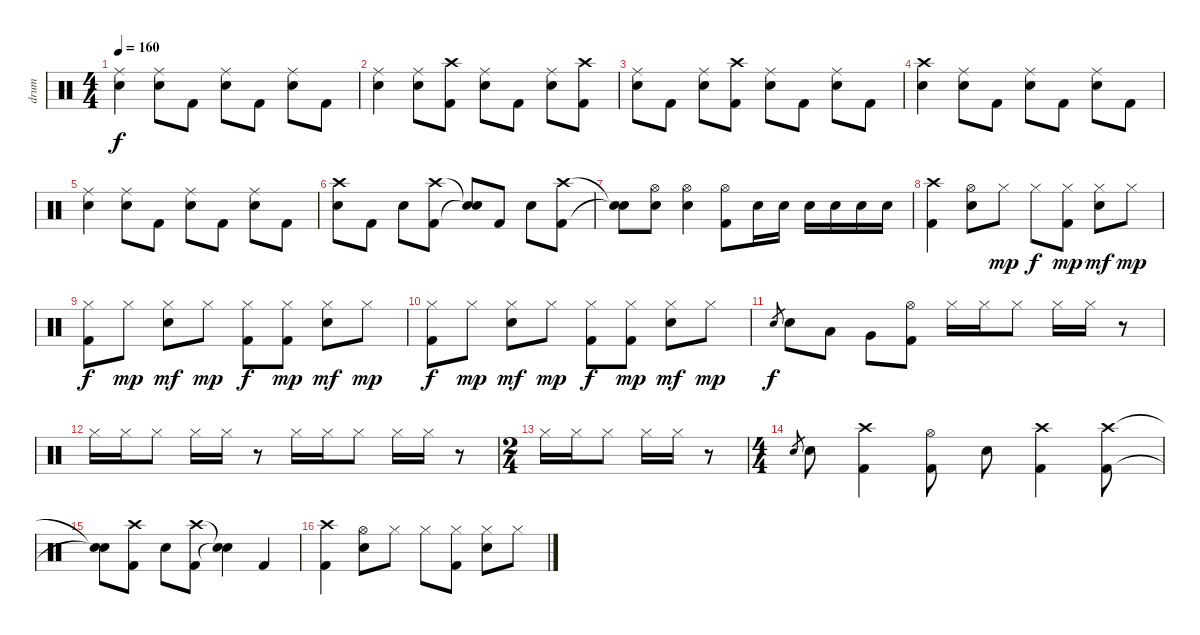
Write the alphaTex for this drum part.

\track ("drum" "drum") {instrument percussion}
\staff {score}
\articulation defaults
\ts (4 4)
\tempo 160
\clef neutral
\ks c
("Ride (middle)" "Electric Snare (hit)").4{dy f} ("Ride (middle)" "Electric Snare (hit)").8 "Kick (hit) 2".8 ("Ride (middle)" "Electric Snare (hit)").8 "Kick (hit) 2".8 ("Ride (middle)" "Electric Snare (hit)").8 "Kick (hit) 2".8 |
("Ride (middle)" "Electric Snare (hit)").4 ("Ride (middle)" "Electric Snare (hit)").8 ("Crash high (hit)" "Kick (hit) 2").8 ("Ride (middle)" "Electric Snare (hit)").8 "Kick (hit) 2".8 ("Ride (middle)" "Electric Snare (hit)").8 ("Crash high (hit)" "Kick (hit) 2").8 |
("Ride (middle)" "Electric Snare (hit)").8 "Kick (hit) 2".8 ("Ride (middle)" "Electric Snare (hit)").8 ("Crash high (hit)" "Kick (hit) 2").8 ("Ride (middle)" "Electric Snare (hit)").8 "Kick (hit) 2".8 ("Ride (middle)" "Electric Snare (hit)").8 "Kick (hit) 2".8 |
("Crash high (hit)" "Electric Snare (hit)").4 ("Ride (middle)" "Electric Snare (hit)").8 "Kick (hit) 2".8 ("Ride (middle)" "Electric Snare (hit)").8 "Kick (hit) 2".8 ("Ride (middle)" "Electric Snare (hit)").8 "Kick (hit) 2".8 |
("Ride (middle)" "Electric Snare (hit)").4 ("Ride (middle)" "Electric Snare (hit)").8 "Kick (hit) 2".8 ("Ride (middle)" "Electric Snare (hit)").8 "Kick (hit) 2".8 ("Ride (middle)" "Electric Snare (hit)").8 "Kick (hit) 2".8 |
("Crash high (hit)" "Electric Snare (hit)").8 "Kick (hit) 2".8 "Electric Snare (hit)".8 ("Crash high (hit)" "Kick (hit) 2").8 ("Snare (hit)"{t} "Snare (hit)"{t}).8 "Kick (hit) 2".8 "Electric Snare (hit)".8 ("Crash high (hit)" "Kick (hit) 2").8 |
("Snare (hit)"{t} "Snare (hit)"{t}).8 ("Hi-Hat (open)" "Electric Snare (hit)").8 ("Hi-Hat (open)" "Electric Snare (hit)").4 ("Hi-Hat (open)" "Kick (hit) 2").8 "Electric Snare (hit)".16 "Electric Snare (hit)".16 "Electric Snare (hit)".16 "Electric Snare (hit)".16 "Electric Snare (hit)".16 "Electric Snare (hit)".16 |
("Crash high (hit)" "Kick (hit) 2").4 ("Hi-Hat (open)" "Electric Snare (hit)").8 "Hi-Hat (closed)".8{dy mp} "Hi-Hat (closed)".8{dy f} ("Hi-Hat (closed)" "Kick (hit) 2").8{dy mp} ("Hi-Hat (closed)" "Electric Snare (hit)").8{dy mf} "Hi-Hat (closed)".8{dy mp} |
("Hi-Hat (closed)" "Kick (hit) 2").8{dy f} "Hi-Hat (closed)".8{dy mp} ("Hi-Hat (closed)" "Electric Snare (hit)").8{dy mf} "Hi-Hat (closed)".8{dy mp} ("Hi-Hat (closed)" "Kick (hit) 2").8{dy f} ("Hi-Hat (closed)" "Kick (hit) 2").8{dy mp} ("Hi-Hat (closed)" "Electric Snare (hit)").8{dy mf} "Hi-Hat (closed)".8{dy mp} |
("Hi-Hat (closed)" "Kick (hit) 2").8{dy f} "Hi-Hat (closed)".8{dy mp} ("Hi-Hat (closed)" "Electric Snare (hit)").8{dy mf} "Hi-Hat (closed)".8{dy mp} ("Hi-Hat (closed)" "Kick (hit) 2").8{dy f} ("Hi-Hat (closed)" "Kick (hit) 2").8{dy mp} ("Hi-Hat (closed)" "Electric Snare (hit)").8{dy mf} "Hi-Hat (closed)".8{dy mp} |
"Electric Snare (hit)".8{gr dy f} "Electric Snare (hit)".8 "Low Tom (hit)".8 "Very Low Tom (hit)".8 ("Hi-Hat (open)" "Kick (hit) 2").8 "Hi-Hat (closed)".16 "Hi-Hat (closed)".16 "Hi-Hat (closed)".8 "Hi-Hat (closed)".16 "Hi-Hat (closed)".16 r.8 |
"Hi-Hat (closed)".16 "Hi-Hat (closed)".16 "Hi-Hat (closed)".8 "Hi-Hat (closed)".16 "Hi-Hat (closed)".16 r.8 "Hi-Hat (closed)".16 "Hi-Hat (closed)".16 "Hi-Hat (closed)".8 "Hi-Hat (closed)".16 "Hi-Hat (closed)".16 r.8 |
\ts (2 4)
"Hi-Hat (closed)".16 "Hi-Hat (closed)".16 "Hi-Hat (closed)".8 "Hi-Hat (closed)".16 "Hi-Hat (closed)".16 r.8 |
\ts (4 4)
"Electric Snare (hit)".8{gr} "Electric Snare (hit)".8 ("Crash high (hit)" "Kick (hit) 2").4 ("Hi-Hat (open)" "Kick (hit) 2").8 "Electric Snare (hit)".8 ("Crash high (hit)" "Kick (hit) 2").4 ("Crash high (hit)" "Kick (hit) 2").8 |
("Snare (hit)"{t} "Snare (hit)"{t}).8 ("Crash high (hit)" "Kick (hit) 2").8 "Electric Snare (hit)".8 ("Crash high (hit)" "Kick (hit) 2").8 ("Snare (hit)"{t} "Snare (hit)"{t}).4 "Kick (hit) 2".4 |
("Crash high (hit)" "Kick (hit) 2").4 ("Hi-Hat (open)" "Electric Snare (hit)").8 "Hi-Hat (closed)".8 "Hi-Hat (closed)".8 ("Hi-Hat (closed)" "Kick (hit) 2").8 ("Hi-Hat (closed)" "Electric Snare (hit)").8 "Hi-Hat (closed)".8
